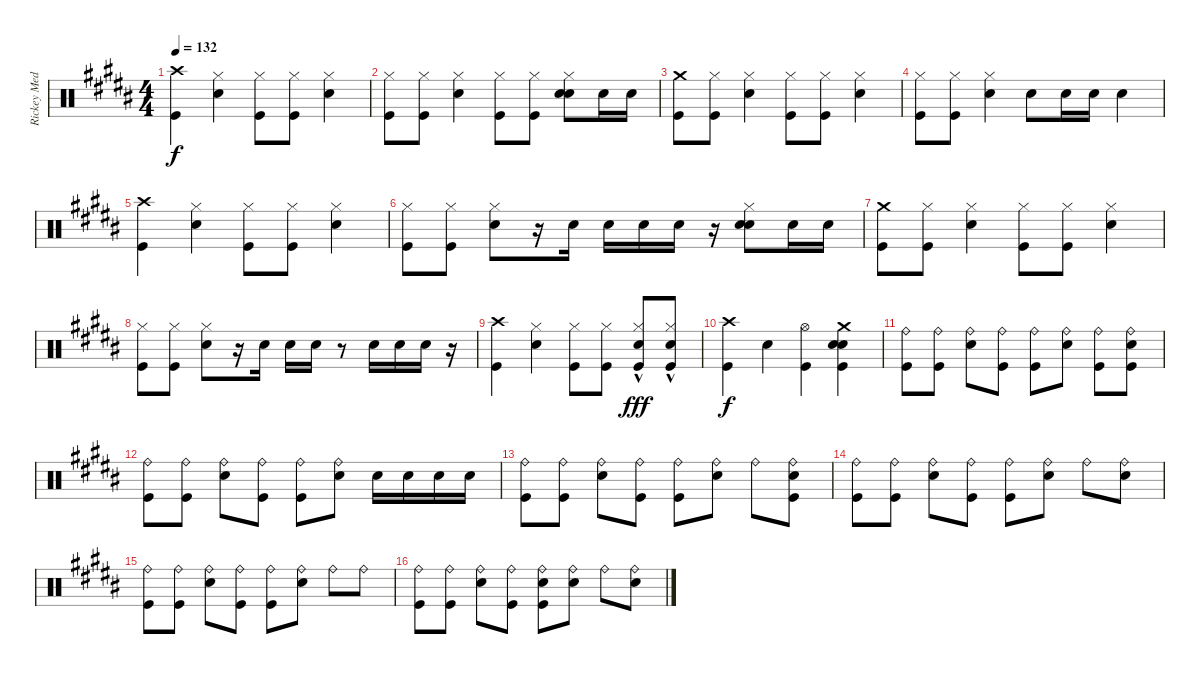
\track ("Rickey Medlocke Drums" "Rickey Med") {instrument percussion}
\staff {score}
\articulation defaults
\ts (4 4)
\tempo 132
\clef neutral
\ks b
("Crash high (hit)" "Kick (hit)").4{dy f} ("Hi-Hat (closed)" "Snare (hit) 2").4 ("Hi-Hat (closed)" "Kick (hit)").8 ("Hi-Hat (closed)" "Kick (hit)").8 ("Hi-Hat (closed)" "Snare (hit) 2").4 |
("Hi-Hat (closed)" "Kick (hit)").8 ("Hi-Hat (closed)" "Kick (hit)").8 ("Hi-Hat (closed)" "Snare (hit) 2").4 ("Hi-Hat (closed)" "Kick (hit)").8 ("Hi-Hat (closed)" "Kick (hit)").8 ("Hi-Hat (closed)" "Snare (hit) 2" "Hand Clap (hit)").8 "Snare (hit) 2".16 "Snare (hit) 2".16 |
("Crash medium (hit)" "Kick (hit)").8 ("Hi-Hat (closed)" "Kick (hit)").8 ("Hi-Hat (closed)" "Snare (hit) 2").4 ("Hi-Hat (closed)" "Kick (hit)").8 ("Hi-Hat (closed)" "Kick (hit)").8 ("Hi-Hat (closed)" "Snare (hit) 2").4 |
("Hi-Hat (closed)" "Kick (hit)").8 ("Hi-Hat (closed)" "Kick (hit)").8 ("Hi-Hat (closed)" "Snare (hit) 2").4 "Snare (hit) 2".8 "Snare (hit) 2".16 "Snare (hit) 2".16 "Snare (hit) 2".4 |
("Crash high (hit)" "Kick (hit)").4 ("Hi-Hat (closed)" "Snare (hit) 2").4 ("Hi-Hat (closed)" "Kick (hit)").8 ("Hi-Hat (closed)" "Kick (hit)").8 ("Hi-Hat (closed)" "Snare (hit) 2").4 |
("Hi-Hat (closed)" "Kick (hit)").8 ("Hi-Hat (closed)" "Kick (hit)").8 ("Hi-Hat (closed)" "Snare (hit) 2").8 r.16 "Snare (hit) 2".16 "Snare (hit) 2".16 "Snare (hit) 2".16 "Snare (hit) 2".16 r.16 ("Hi-Hat (closed)" "Snare (hit) 2" "Hand Clap (hit)").8 "Snare (hit) 2".16 "Snare (hit) 2".16 |
("Crash medium (hit)" "Kick (hit)").8 ("Hi-Hat (closed)" "Kick (hit)").8 ("Hi-Hat (closed)" "Snare (hit) 2").4 ("Hi-Hat (closed)" "Kick (hit)").8 ("Hi-Hat (closed)" "Kick (hit)").8 ("Hi-Hat (closed)" "Snare (hit) 2").4 |
("Hi-Hat (closed)" "Kick (hit)").8 ("Hi-Hat (closed)" "Kick (hit)").8 ("Hi-Hat (closed)" "Snare (hit) 2").8 r.16 "Snare (hit) 2".16 "Snare (hit) 2".16 "Snare (hit) 2".16 r.8 "Snare (hit) 2".16 "Snare (hit) 2".16 "Snare (hit) 2".16 r.16 |
("Crash high (hit)" "Kick (hit)").4 ("Hi-Hat (closed)" "Snare (hit) 2").4 ("Hi-Hat (closed)" "Kick (hit)").8 ("Hi-Hat (closed)" "Kick (hit)").8 ("Hi-Hat (closed)"{hac} "Snare (hit) 2" "Kick (hit)").8{dy fff} ("Hi-Hat (closed)"{hac} "Snare (hit) 2" "Kick (hit)").8 |
("Crash high (hit)" "Kick (hit)").4{dy f} "Snare (hit) 2".4 ("Hi-Hat (open)" "Kick (hit)").4 ("Crash medium (hit)" "Snare (hit) 2" "Hand Clap (hit)" "Kick (hit)").4 |
("Ride (bell)" "Kick (hit)").8 ("Ride (bell)" "Kick (hit)").8 ("Ride (bell)" "Snare (hit) 2").8 ("Ride (bell)" "Kick (hit)").8 ("Ride (bell)" "Kick (hit)").8 ("Ride (bell)" "Snare (hit) 2").8 ("Ride (bell)" "Kick (hit)").8 ("Ride (bell)" "Snare (hit) 2" "Kick (hit)").8 |
("Ride (bell)" "Kick (hit)").8 ("Ride (bell)" "Kick (hit)").8 ("Ride (bell)" "Snare (hit) 2").8 ("Ride (bell)" "Kick (hit)").8 ("Ride (bell)" "Kick (hit)").8 ("Ride (bell)" "Snare (hit) 2").8 "Snare (hit) 2".16 "Snare (hit) 2".16 "Snare (hit) 2".16 "Snare (hit) 2".16 |
("Ride (bell)" "Kick (hit)").8 ("Ride (bell)" "Kick (hit)").8 ("Ride (bell)" "Snare (hit) 2").8 ("Ride (bell)" "Kick (hit)").8 ("Ride (bell)" "Kick (hit)").8 ("Ride (bell)" "Snare (hit) 2").8 "Ride (bell)".8 ("Ride (bell)" "Snare (hit) 2" "Kick (hit)").8 |
("Ride (bell)" "Kick (hit)").8 ("Ride (bell)" "Kick (hit)").8 ("Ride (bell)" "Snare (hit) 2").8 ("Ride (bell)" "Kick (hit)").8 ("Ride (bell)" "Kick (hit)").8 ("Ride (bell)" "Snare (hit) 2").8 "Ride (bell)".8 ("Ride (bell)" "Snare (hit) 2").8 |
("Ride (bell)" "Kick (hit)").8 ("Ride (bell)" "Kick (hit)").8 ("Ride (bell)" "Snare (hit) 2").8 ("Ride (bell)" "Kick (hit)").8 ("Ride (bell)" "Kick (hit)").8 ("Ride (bell)" "Snare (hit) 2").8 "Ride (bell)".8 "Ride (bell)".8 |
("Ride (bell)" "Kick (hit)").8 ("Ride (bell)" "Kick (hit)").8 ("Ride (bell)" "Snare (hit) 2").8 ("Ride (bell)" "Kick (hit)").8 ("Ride (bell)" "Snare (hit) 2" "Kick (hit)").8 ("Ride (bell)" "Snare (hit) 2").8 "Ride (bell)".8 ("Ride (bell)" "Snare (hit) 2").8
